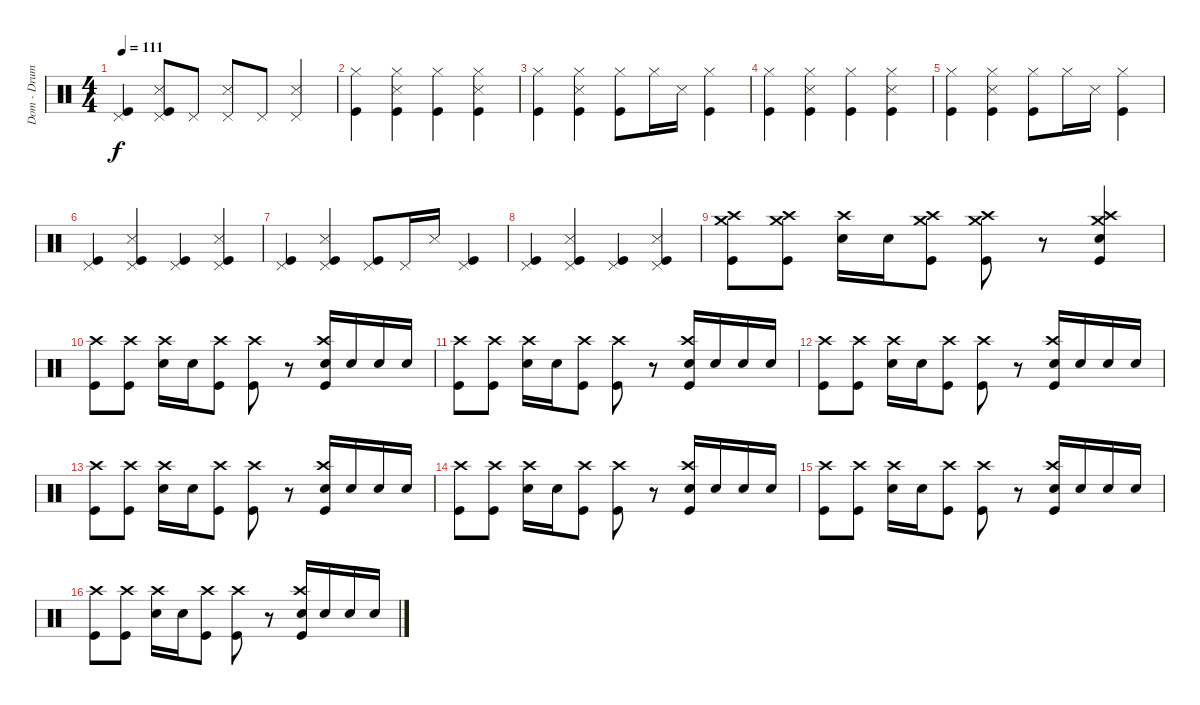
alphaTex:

\track ("Dom - Drums" "Dom - Drum") {instrument percussion}
\staff {score}
\articulation defaults
\ts (4 4)
\tempo 111
\clef neutral
\ks c
("Pedal Hi-Hat (hit)" "Kick (hit)").4{dy f} ("Pedal Hi-Hat (hit)" "Snare (side stick) 3" "Kick (hit)").8 "Pedal Hi-Hat (hit)".8 ("Pedal Hi-Hat (hit)" "Snare (side stick) 3").8 "Pedal Hi-Hat (hit)".8 ("Pedal Hi-Hat (hit)" "Snare (side stick) 3").4 |
("Hi-Hat (closed)" "Kick (hit)").4 ("Hi-Hat (closed)" "Snare (side stick) 3" "Kick (hit)").4 ("Hi-Hat (closed)" "Kick (hit)").4 ("Hi-Hat (closed)" "Snare (side stick) 3" "Kick (hit)").4 |
("Hi-Hat (closed)" "Kick (hit)").4 ("Hi-Hat (closed)" "Snare (side stick) 3" "Kick (hit)").4 ("Hi-Hat (closed)" "Kick (hit)").8 "Hi-Hat (closed)".16 "Snare (side stick) 3".16 ("Hi-Hat (closed)" "Kick (hit)").4 |
("Hi-Hat (closed)" "Kick (hit)").4 ("Hi-Hat (closed)" "Snare (side stick) 3" "Kick (hit)").4 ("Hi-Hat (closed)" "Kick (hit)").4 ("Hi-Hat (closed)" "Snare (side stick) 3" "Kick (hit)").4 |
("Hi-Hat (closed)" "Kick (hit)").4 ("Hi-Hat (closed)" "Snare (side stick) 3" "Kick (hit)").4 ("Hi-Hat (closed)" "Kick (hit)").8 "Hi-Hat (closed)".16 "Snare (side stick) 3".16 ("Hi-Hat (closed)" "Kick (hit)").4 |
("Pedal Hi-Hat (hit)" "Kick (hit)").4 ("Pedal Hi-Hat (hit)" "Snare (side stick) 3" "Kick (hit)").4 ("Pedal Hi-Hat (hit)" "Kick (hit)").4 ("Pedal Hi-Hat (hit)" "Snare (side stick) 3" "Kick (hit)").4 |
("Pedal Hi-Hat (hit)" "Kick (hit)").4 ("Pedal Hi-Hat (hit)" "Snare (side stick) 3" "Kick (hit)").4 ("Pedal Hi-Hat (hit)" "Kick (hit)").8 "Pedal Hi-Hat (hit)".16 "Snare (side stick) 3".16 ("Pedal Hi-Hat (hit)" "Kick (hit)").4 |
("Pedal Hi-Hat (hit)" "Kick (hit)").4 ("Pedal Hi-Hat (hit)" "Snare (side stick) 3" "Kick (hit)").4 ("Pedal Hi-Hat (hit)" "Kick (hit)").4 ("Pedal Hi-Hat (hit)" "Snare (side stick) 3" "Kick (hit)").4 |
("Crash high (hit)" "Crash medium (hit)" "Kick (hit)").8 ("Crash high (hit)" "Crash medium (hit)" "Kick (hit)").8 ("Crash high (hit)" "Electric Snare (hit)").16 "Electric Snare (hit)".16 ("Crash high (hit)" "Crash medium (hit)" "Kick (hit)").8 ("Crash high (hit)" "Crash medium (hit)" "Kick (hit)").8 r.8 ("Crash high (hit)" "Crash medium (hit)" "Electric Snare (hit)" "Kick (hit)").4 |
("Crash high (hit)" "Kick (hit)").8 ("Crash high (hit)" "Kick (hit)").8 ("Crash high (hit)" "Electric Snare (hit)").16 "Electric Snare (hit)".16 ("Crash high (hit)" "Kick (hit)").8 ("Crash high (hit)" "Kick (hit)").8 r.8 ("Crash high (hit)" "Electric Snare (hit)" "Kick (hit)").16 "Electric Snare (hit)".16 "Electric Snare (hit)".16 "Electric Snare (hit)".16 |
("Crash high (hit)" "Kick (hit)").8 ("Crash high (hit)" "Kick (hit)").8 ("Crash high (hit)" "Electric Snare (hit)").16 "Electric Snare (hit)".16 ("Crash high (hit)" "Kick (hit)").8 ("Crash high (hit)" "Kick (hit)").8 r.8 ("Crash high (hit)" "Electric Snare (hit)" "Kick (hit)").16 "Electric Snare (hit)".16 "Electric Snare (hit)".16 "Electric Snare (hit)".16 |
("Crash high (hit)" "Kick (hit)").8 ("Crash high (hit)" "Kick (hit)").8 ("Crash high (hit)" "Electric Snare (hit)").16 "Electric Snare (hit)".16 ("Crash high (hit)" "Kick (hit)").8 ("Crash high (hit)" "Kick (hit)").8 r.8 ("Crash high (hit)" "Electric Snare (hit)" "Kick (hit)").16 "Electric Snare (hit)".16 "Electric Snare (hit)".16 "Electric Snare (hit)".16 |
("Crash high (hit)" "Kick (hit)").8 ("Crash high (hit)" "Kick (hit)").8 ("Crash high (hit)" "Electric Snare (hit)").16 "Electric Snare (hit)".16 ("Crash high (hit)" "Kick (hit)").8 ("Crash high (hit)" "Kick (hit)").8 r.8 ("Crash high (hit)" "Electric Snare (hit)" "Kick (hit)").16 "Electric Snare (hit)".16 "Electric Snare (hit)".16 "Electric Snare (hit)".16 |
("Crash high (hit)" "Kick (hit)").8 ("Crash high (hit)" "Kick (hit)").8 ("Crash high (hit)" "Electric Snare (hit)").16 "Electric Snare (hit)".16 ("Crash high (hit)" "Kick (hit)").8 ("Crash high (hit)" "Kick (hit)").8 r.8 ("Crash high (hit)" "Electric Snare (hit)" "Kick (hit)").16 "Electric Snare (hit)".16 "Electric Snare (hit)".16 "Electric Snare (hit)".16 |
("Crash high (hit)" "Kick (hit)").8 ("Crash high (hit)" "Kick (hit)").8 ("Crash high (hit)" "Electric Snare (hit)").16 "Electric Snare (hit)".16 ("Crash high (hit)" "Kick (hit)").8 ("Crash high (hit)" "Kick (hit)").8 r.8 ("Crash high (hit)" "Electric Snare (hit)" "Kick (hit)").16 "Electric Snare (hit)".16 "Electric Snare (hit)".16 "Electric Snare (hit)".16 |
("Crash high (hit)" "Kick (hit)").8 ("Crash high (hit)" "Kick (hit)").8 ("Crash high (hit)" "Electric Snare (hit)").16 "Electric Snare (hit)".16 ("Crash high (hit)" "Kick (hit)").8 ("Crash high (hit)" "Kick (hit)").8 r.8 ("Crash high (hit)" "Electric Snare (hit)" "Kick (hit)").16 "Electric Snare (hit)".16 "Electric Snare (hit)".16 "Electric Snare (hit)".16
